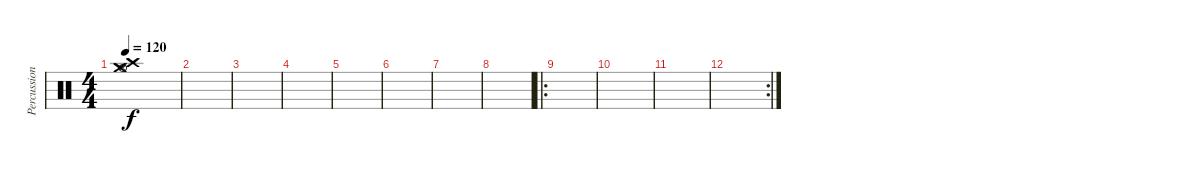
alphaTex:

\track ("Percussion" "Percussion") {instrument percussion}
\staff {score}
\articulation defaults
\ts (4 4)
\tempo 120
\clef neutral
\ks c
("Hi-Hat (open)" "Crash high (hit)" "Crash medium (hit)").1{dy f} |
|
|
|
|
|
|
|
\ro
|
|
|
\rc 2
